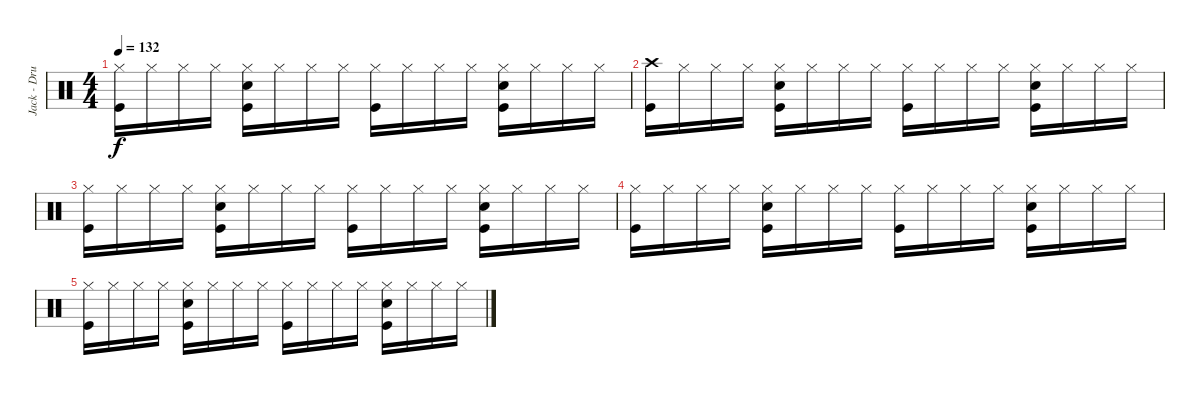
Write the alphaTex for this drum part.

\track ("Jack - Drums" "Jack - Dru") {instrument percussion}
\staff {score}
\articulation defaults
\ts (4 4)
\tempo 132
\clef neutral
\ks c
("Hi-Hat (closed)" "Kick (hit)").16{dy f} "Hi-Hat (closed)".16 "Hi-Hat (closed)".16 "Hi-Hat (closed)".16 ("Hi-Hat (closed)" "Snare (hit) 2" "Kick (hit)").16 "Hi-Hat (closed)".16 "Hi-Hat (closed)".16 "Hi-Hat (closed)".16 ("Hi-Hat (closed)" "Kick (hit)").16 "Hi-Hat (closed)".16 "Hi-Hat (closed)".16 "Hi-Hat (closed)".16 ("Hi-Hat (closed)" "Snare (hit) 2" "Kick (hit)").16 "Hi-Hat (closed)".16 "Hi-Hat (closed)".16 "Hi-Hat (closed)".16 |
("Crash high (hit)" "Kick (hit)").16 "Hi-Hat (closed)".16 "Hi-Hat (closed)".16 "Hi-Hat (closed)".16 ("Hi-Hat (closed)" "Snare (hit) 2" "Kick (hit)").16 "Hi-Hat (closed)".16 "Hi-Hat (closed)".16 "Hi-Hat (closed)".16 ("Hi-Hat (closed)" "Kick (hit)").16 "Hi-Hat (closed)".16 "Hi-Hat (closed)".16 "Hi-Hat (closed)".16 ("Hi-Hat (closed)" "Snare (hit) 2" "Kick (hit)").16 "Hi-Hat (closed)".16 "Hi-Hat (closed)".16 "Hi-Hat (closed)".16 |
("Hi-Hat (closed)" "Kick (hit)").16 "Hi-Hat (closed)".16 "Hi-Hat (closed)".16 "Hi-Hat (closed)".16 ("Hi-Hat (closed)" "Snare (hit) 2" "Kick (hit)").16 "Hi-Hat (closed)".16 "Hi-Hat (closed)".16 "Hi-Hat (closed)".16 ("Hi-Hat (closed)" "Kick (hit)").16 "Hi-Hat (closed)".16 "Hi-Hat (closed)".16 "Hi-Hat (closed)".16 ("Hi-Hat (closed)" "Snare (hit) 2" "Kick (hit)").16 "Hi-Hat (closed)".16 "Hi-Hat (closed)".16 "Hi-Hat (closed)".16 |
("Hi-Hat (closed)" "Kick (hit)").16 "Hi-Hat (closed)".16 "Hi-Hat (closed)".16 "Hi-Hat (closed)".16 ("Hi-Hat (closed)" "Snare (hit) 2" "Kick (hit)").16 "Hi-Hat (closed)".16 "Hi-Hat (closed)".16 "Hi-Hat (closed)".16 ("Hi-Hat (closed)" "Kick (hit)").16 "Hi-Hat (closed)".16 "Hi-Hat (closed)".16 "Hi-Hat (closed)".16 ("Hi-Hat (closed)" "Snare (hit) 2" "Kick (hit)").16 "Hi-Hat (closed)".16 "Hi-Hat (closed)".16 "Hi-Hat (closed)".16 |
("Hi-Hat (closed)" "Kick (hit)").16 "Hi-Hat (closed)".16 "Hi-Hat (closed)".16 "Hi-Hat (closed)".16 ("Hi-Hat (closed)" "Snare (hit) 2" "Kick (hit)").16 "Hi-Hat (closed)".16 "Hi-Hat (closed)".16 "Hi-Hat (closed)".16 ("Hi-Hat (closed)" "Kick (hit)").16 "Hi-Hat (closed)".16 "Hi-Hat (closed)".16 "Hi-Hat (closed)".16 ("Hi-Hat (closed)" "Snare (hit) 2" "Kick (hit)").16 "Hi-Hat (closed)".16 "Hi-Hat (closed)".16 "Hi-Hat (closed)".16
